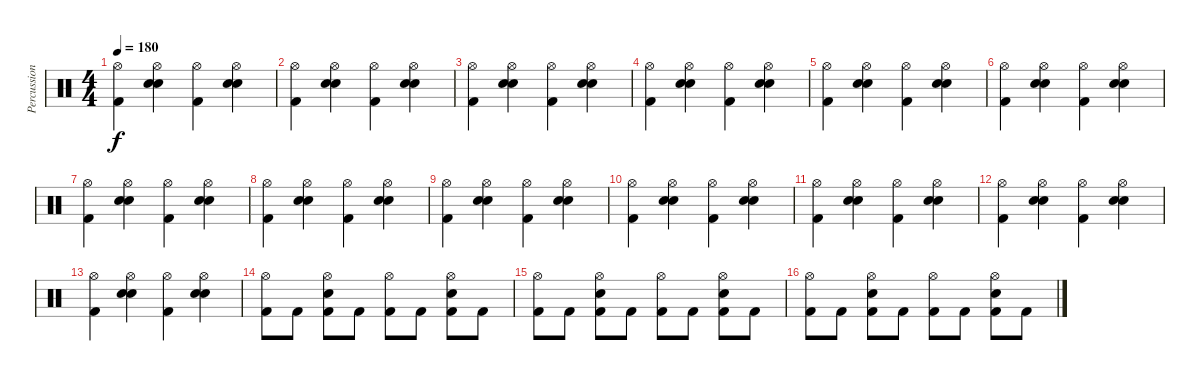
\track ("Percussion" "Percussion") {instrument percussion}
\staff {score}
\articulation defaults
\ts (4 4)
\tempo 180
\clef neutral
\ks c
("Hi-Hat (open)" "Kick (hit) 2").4{dy f} ("Hi-Hat (open)" "Snare (hit) 2" "Snare (hit) 2").4 ("Hi-Hat (open)" "Kick (hit) 2").4 ("Hi-Hat (open)" "Snare (hit) 2" "Snare (hit) 2").4 |
("Hi-Hat (open)" "Kick (hit) 2").4 ("Hi-Hat (open)" "Snare (hit) 2" "Snare (hit) 2").4 ("Hi-Hat (open)" "Kick (hit) 2").4 ("Hi-Hat (open)" "Snare (hit) 2" "Snare (hit) 2").4 |
("Hi-Hat (open)" "Kick (hit) 2").4 ("Hi-Hat (open)" "Snare (hit) 2" "Snare (hit) 2").4 ("Hi-Hat (open)" "Kick (hit) 2").4 ("Hi-Hat (open)" "Snare (hit) 2" "Snare (hit) 2").4 |
("Hi-Hat (open)" "Kick (hit) 2").4 ("Hi-Hat (open)" "Snare (hit) 2" "Snare (hit) 2").4 ("Hi-Hat (open)" "Kick (hit) 2").4 ("Hi-Hat (open)" "Snare (hit) 2" "Snare (hit) 2").4 |
("Hi-Hat (open)" "Kick (hit) 2").4 ("Hi-Hat (open)" "Snare (hit) 2" "Snare (hit) 2").4 ("Hi-Hat (open)" "Kick (hit) 2").4 ("Hi-Hat (open)" "Snare (hit) 2" "Snare (hit) 2").4 |
("Hi-Hat (open)" "Kick (hit) 2").4 ("Hi-Hat (open)" "Snare (hit) 2" "Snare (hit) 2").4 ("Hi-Hat (open)" "Kick (hit) 2").4 ("Hi-Hat (open)" "Snare (hit) 2" "Snare (hit) 2").4 |
("Hi-Hat (open)" "Kick (hit) 2").4 ("Hi-Hat (open)" "Snare (hit) 2" "Snare (hit) 2").4 ("Hi-Hat (open)" "Kick (hit) 2").4 ("Hi-Hat (open)" "Snare (hit) 2" "Snare (hit) 2").4 |
("Hi-Hat (open)" "Kick (hit) 2").4 ("Hi-Hat (open)" "Snare (hit) 2" "Snare (hit) 2").4 ("Hi-Hat (open)" "Kick (hit) 2").4 ("Hi-Hat (open)" "Snare (hit) 2" "Snare (hit) 2").4 |
("Hi-Hat (open)" "Kick (hit) 2").4 ("Hi-Hat (open)" "Snare (hit) 2" "Snare (hit) 2").4 ("Hi-Hat (open)" "Kick (hit) 2").4 ("Hi-Hat (open)" "Snare (hit) 2" "Snare (hit) 2").4 |
("Hi-Hat (open)" "Kick (hit) 2").4 ("Hi-Hat (open)" "Snare (hit) 2" "Snare (hit) 2").4 ("Hi-Hat (open)" "Kick (hit) 2").4 ("Hi-Hat (open)" "Snare (hit) 2" "Snare (hit) 2").4 |
("Hi-Hat (open)" "Kick (hit) 2").4 ("Hi-Hat (open)" "Snare (hit) 2" "Snare (hit) 2").4 ("Hi-Hat (open)" "Kick (hit) 2").4 ("Hi-Hat (open)" "Snare (hit) 2" "Snare (hit) 2").4 |
("Hi-Hat (open)" "Kick (hit) 2").4 ("Hi-Hat (open)" "Snare (hit) 2" "Snare (hit) 2").4 ("Hi-Hat (open)" "Kick (hit) 2").4 ("Hi-Hat (open)" "Snare (hit) 2" "Snare (hit) 2").4 |
("Hi-Hat (open)" "Kick (hit) 2").4 ("Hi-Hat (open)" "Snare (hit) 2" "Snare (hit) 2").4 ("Hi-Hat (open)" "Kick (hit) 2").4 ("Hi-Hat (open)" "Snare (hit) 2" "Snare (hit) 2").4 |
("Hi-Hat (open)" "Kick (hit) 2").8 "Kick (hit) 2".8 ("Hi-Hat (open)" "Snare (hit) 2" "Kick (hit) 2").8 "Kick (hit) 2".8 ("Hi-Hat (open)" "Kick (hit) 2").8 "Kick (hit) 2".8 ("Hi-Hat (open)" "Snare (hit) 2" "Kick (hit) 2").8 "Kick (hit) 2".8 |
("Hi-Hat (open)" "Kick (hit) 2").8 "Kick (hit) 2".8 ("Hi-Hat (open)" "Snare (hit) 2" "Kick (hit) 2").8 "Kick (hit) 2".8 ("Hi-Hat (open)" "Kick (hit) 2").8 "Kick (hit) 2".8 ("Hi-Hat (open)" "Snare (hit) 2" "Kick (hit) 2").8 "Kick (hit) 2".8 |
("Hi-Hat (open)" "Kick (hit) 2").8 "Kick (hit) 2".8 ("Hi-Hat (open)" "Snare (hit) 2" "Kick (hit) 2").8 "Kick (hit) 2".8 ("Hi-Hat (open)" "Kick (hit) 2").8 "Kick (hit) 2".8 ("Hi-Hat (open)" "Snare (hit) 2" "Kick (hit) 2").8 "Kick (hit) 2".8
